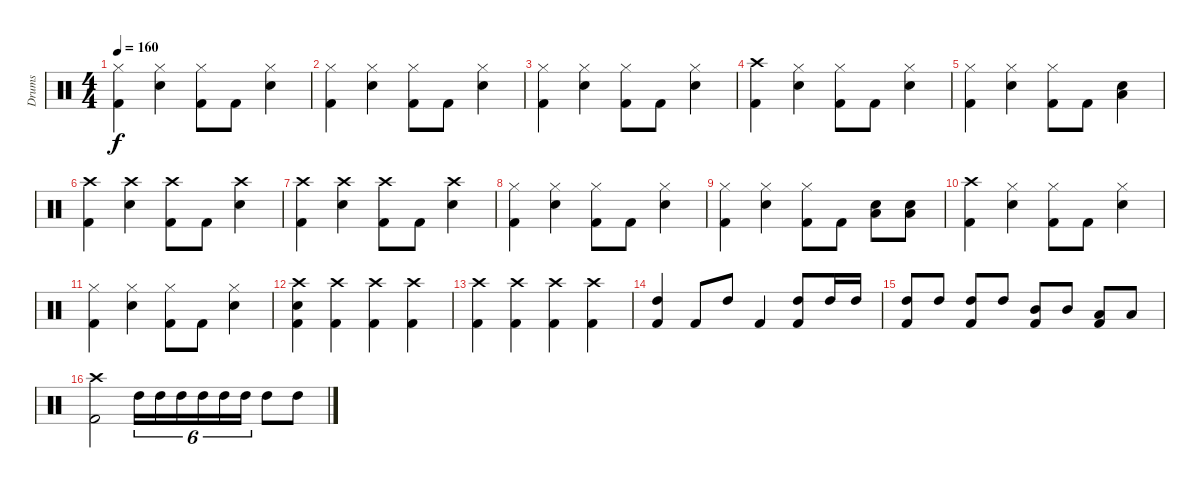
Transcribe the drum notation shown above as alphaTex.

\track ("Drums" "Drums") {instrument percussion}
\staff {score}
\articulation defaults
\ts (4 4)
\tempo 160
\clef neutral
\ks c
("Hi-Hat (closed)" "Kick (hit) 2").4{dy f} ("Hi-Hat (closed)" "Snare (hit) 2").4 ("Hi-Hat (closed)" "Kick (hit) 2").8 "Kick (hit) 2".8 ("Hi-Hat (closed)" "Snare (hit) 2").4 |
("Hi-Hat (closed)" "Kick (hit) 2").4 ("Hi-Hat (closed)" "Snare (hit) 2").4 ("Hi-Hat (closed)" "Kick (hit) 2").8 "Kick (hit) 2".8 ("Hi-Hat (closed)" "Snare (hit) 2").4 |
("Hi-Hat (closed)" "Kick (hit) 2").4 ("Hi-Hat (closed)" "Snare (hit) 2").4 ("Hi-Hat (closed)" "Kick (hit) 2").8 "Kick (hit) 2".8 ("Hi-Hat (closed)" "Snare (hit) 2").4 |
("Crash high (hit)" "Kick (hit) 2").4 ("Hi-Hat (closed)" "Snare (hit) 2").4 ("Hi-Hat (closed)" "Kick (hit) 2").8 "Kick (hit) 2".8 ("Hi-Hat (closed)" "Snare (hit) 2").4 |
("Hi-Hat (closed)" "Kick (hit) 2").4 ("Hi-Hat (closed)" "Snare (hit) 2").4 ("Hi-Hat (closed)" "Kick (hit) 2").8 "Kick (hit) 2".8 ("Snare (hit) 2" "Low Tom (hit)").4 |
("Crash high (hit)" "Kick (hit) 2").4 ("Crash high (hit)" "Snare (hit) 2").4 ("Crash high (hit)" "Kick (hit) 2").8 "Kick (hit) 2".8 ("Crash high (hit)" "Snare (hit) 2").4 |
("Crash high (hit)" "Kick (hit) 2").4 ("Crash high (hit)" "Snare (hit) 2").4 ("Crash high (hit)" "Kick (hit) 2").8 "Kick (hit) 2".8 ("Crash high (hit)" "Snare (hit) 2").4 |
("Hi-Hat (closed)" "Kick (hit) 2").4 ("Hi-Hat (closed)" "Snare (hit) 2").4 ("Hi-Hat (closed)" "Kick (hit) 2").8 "Kick (hit) 2".8 ("Hi-Hat (closed)" "Snare (hit) 2").4 |
("Hi-Hat (closed)" "Kick (hit) 2").4 ("Hi-Hat (closed)" "Snare (hit) 2").4 ("Hi-Hat (closed)" "Kick (hit) 2").8 "Kick (hit) 2".8 ("Snare (hit) 2" "Low Tom (hit)").8 ("Snare (hit) 2" "Low Tom (hit)").8 |
("Crash high (hit)" "Kick (hit) 2").4 ("Hi-Hat (closed)" "Snare (hit) 2").4 ("Hi-Hat (closed)" "Kick (hit) 2").8 "Kick (hit) 2".8 ("Hi-Hat (closed)" "Snare (hit) 2").4 |
("Hi-Hat (closed)" "Kick (hit) 2").4 ("Hi-Hat (closed)" "Snare (hit) 2").4 ("Hi-Hat (closed)" "Kick (hit) 2").8 "Kick (hit) 2".8 ("Hi-Hat (closed)" "Snare (hit) 2").4 |
("Crash high (hit)" "Snare (hit) 2" "Kick (hit) 2").4 ("Crash high (hit)" "Kick (hit) 2").4 ("Crash high (hit)" "Kick (hit) 2").4 ("Crash high (hit)" "Kick (hit) 2").4 |
("Crash high (hit)" "Kick (hit) 2").4 ("Crash high (hit)" "Kick (hit) 2").4 ("Crash high (hit)" "Kick (hit) 2").4 ("Crash high (hit)" "Kick (hit) 2").4 |
("High Tom (hit)" "Kick (hit) 2").4 "Kick (hit) 2".8 "High Tom (hit)".8 "Kick (hit) 2".4 ("High Tom (hit)" "Kick (hit) 2").8 "High Tom (hit)".16 "High Tom (hit)".16 |
("High Tom (hit)" "Kick (hit) 2").8 "High Tom (hit)".8 ("High Tom (hit)" "Kick (hit) 2").8 "High Tom (hit)".8 ("Mid Tom (hit)" "Kick (hit) 2").8 "Mid Tom (hit)".8 ("Low Tom (hit)" "Kick (hit) 2").8 "Low Tom (hit)".8 |
("Crash high (hit)" "Kick (hit) 2").2 "High Tom (hit)".16{tu (6 4)} "High Tom (hit)".16{tu (6 4)} "High Tom (hit)".16{tu (6 4)} "High Tom (hit)".16{tu (6 4)} "High Tom (hit)".16{tu (6 4)} "High Tom (hit)".16{tu (6 4)} "High Tom (hit)".8 "High Tom (hit)".8
